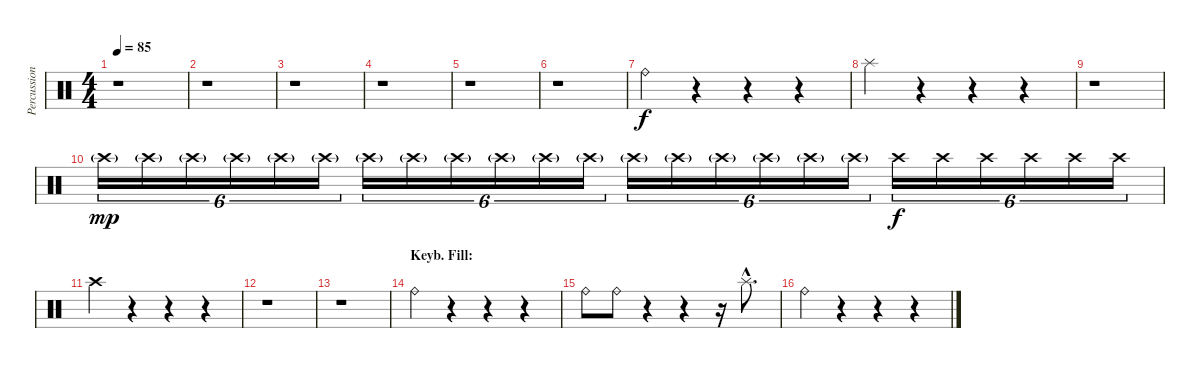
\track ("Percussion" "Percussion") {instrument percussion}
\staff {score}
\articulation defaults
\ts (4 4)
\tempo 85
\clef neutral
\ks c
r.1{dy f} |
r.1 |
r.1 |
r.1 |
r.1 |
r.1 |
"Ride (bell)".4 r.4 r.4 r.4 |
"Splash (hit)".4 r.4 r.4 r.4 |
r.1 |
"Crash high (hit)"{g}.16{tu (6 4) dy mp} "Crash high (hit)"{g}.16{tu (6 4)} "Crash high (hit)"{g}.16{tu (6 4)} "Crash high (hit)"{g}.16{tu (6 4)} "Crash high (hit)"{g}.16{tu (6 4)} "Crash high (hit)"{g}.16{tu (6 4)} "Crash high (hit)"{g}.16{tu (6 4)} "Crash high (hit)"{g}.16{tu (6 4)} "Crash high (hit)"{g}.16{tu (6 4)} "Crash high (hit)"{g}.16{tu (6 4)} "Crash high (hit)"{g}.16{tu (6 4)} "Crash high (hit)"{g}.16{tu (6 4)} "Crash high (hit)"{g}.16{tu (6 4)} "Crash high (hit)"{g}.16{tu (6 4)} "Crash high (hit)"{g}.16{tu (6 4)} "Crash high (hit)"{g}.16{tu (6 4)} "Crash high (hit)"{g}.16{tu (6 4)} "Crash high (hit)"{g}.16{tu (6 4)} "Crash high (hit)".16{tu (6 4) dy f} "Crash high (hit)".16{tu (6 4)} "Crash high (hit)".16{tu (6 4)} "Crash high (hit)".16{tu (6 4)} "Crash high (hit)".16{tu (6 4)} "Crash high (hit)".16{tu (6 4)} |
"Crash high (hit)".4 r.4 r.4 r.4 |
r.1 |
r.1 |
\section ("" "Keyb. Fill:")
"Ride (bell)".4 r.4 r.4 r.4 |
"Ride (bell)".8 "Ride (bell)".8 r.4 r.4 r.16 "Splash (hit)"{hac}.8{d} |
"Ride (bell)".4 r.4 r.4 r.4
